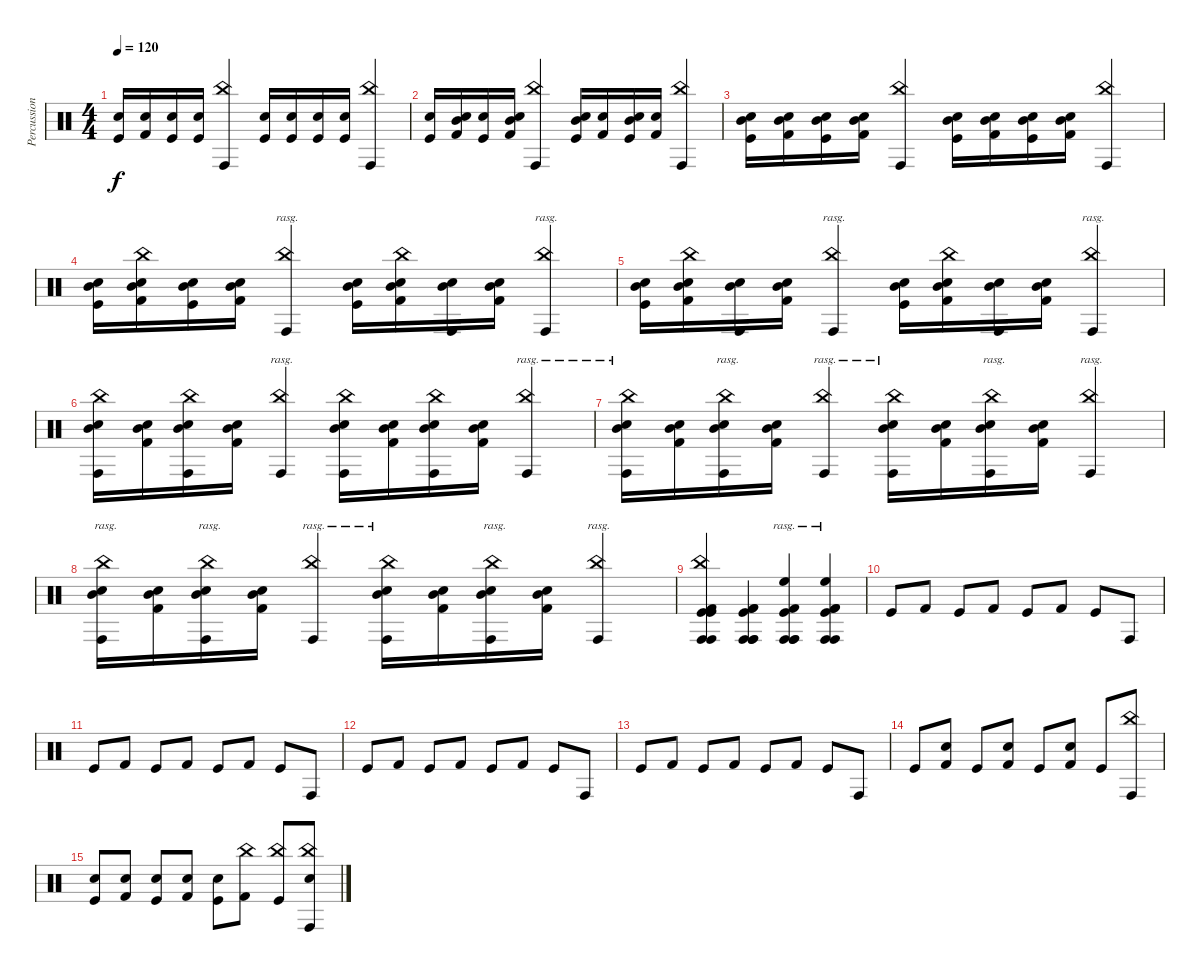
\track ("Percussion" "Percussion") {instrument percussion}
\staff {score}
\articulation defaults
\ts (4 4)
\tempo 120
\clef neutral
\ks c
("Electric Snare (hit)" "Kick (hit)").16{dy f} ("Electric Snare (hit)" "Kick (hit) 2").16 ("Electric Snare (hit)" "Kick (hit)").16 ("Electric Snare (hit)" "Kick (hit)").16 ("China (hit)" "Conga high (hit)").4 ("Electric Snare (hit)" "Kick (hit)").16 ("Electric Snare (hit)" "Kick (hit)").16 ("Electric Snare (hit)" "Kick (hit)").16 ("Electric Snare (hit)" "Kick (hit)").16 ("China (hit)" "Conga high (hit)").4 |
("Electric Snare (hit)" "Kick (hit)").16 ("Electric Snare (hit)" "Mid Tom (hit)" "Kick (hit) 2").16 ("Electric Snare (hit)" "Kick (hit)").16 ("Electric Snare (hit)" "Mid Tom (hit)" "Kick (hit) 2").16 ("China (hit)" "Conga high (hit)").4 ("Electric Snare (hit)" "Mid Tom (hit)" "Kick (hit)").16 ("Electric Snare (hit)" "Kick (hit) 2").16 ("Electric Snare (hit)" "Mid Tom (hit)" "Kick (hit)").16 ("Electric Snare (hit)" "Kick (hit) 2").16 ("China (hit)" "Conga high (hit)").4 |
("Electric Snare (hit)" "Mid Tom (hit)" "Kick (hit)").16 ("Electric Snare (hit)" "Mid Tom (hit)" "Kick (hit) 2").16 ("Electric Snare (hit)" "Mid Tom (hit)" "Kick (hit)").16 ("Electric Snare (hit)" "Mid Tom (hit)" "Kick (hit) 2").16 ("China (hit)" "Conga high (hit)").4 ("Electric Snare (hit)" "Mid Tom (hit)" "Kick (hit)").16 ("Electric Snare (hit)" "Mid Tom (hit)" "Kick (hit) 2").16 ("Electric Snare (hit)" "Mid Tom (hit)" "Kick (hit)").16 ("Electric Snare (hit)" "Mid Tom (hit)" "Kick (hit) 2").16 ("China (hit)" "Conga high (hit)").4 |
("Electric Snare (hit)" "Mid Tom (hit)" "Kick (hit)").16 ("China (hit)" "Electric Snare (hit)" "Mid Tom (hit)" "Kick (hit) 2").16 ("Electric Snare (hit)" "Mid Tom (hit)" "Kick (hit)").16 ("Electric Snare (hit)" "Mid Tom (hit)" "Kick (hit) 2").16 ("China (hit)" "Conga high (hit)").4{bd 480 rasg ii} ("Electric Snare (hit)" "Mid Tom (hit)" "Kick (hit)").16 ("China (hit)" "Electric Snare (hit)" "Mid Tom (hit)" "Kick (hit) 2").16 ("Electric Snare (hit)" "Mid Tom (hit)" "Conga high (hit)").16 ("Electric Snare (hit)" "Mid Tom (hit)" "Kick (hit) 2").16 ("China (hit)" "Conga high (hit)").4{bd 480 rasg ii} |
("Electric Snare (hit)" "Mid Tom (hit)" "Kick (hit)").16 ("China (hit)" "Electric Snare (hit)" "Mid Tom (hit)" "Kick (hit) 2").16 ("Electric Snare (hit)" "Mid Tom (hit)" "Conga high (hit)").16 ("Electric Snare (hit)" "Mid Tom (hit)" "Kick (hit) 2").16 ("China (hit)" "Conga high (hit)").4{bd 480 rasg ii} ("Electric Snare (hit)" "Mid Tom (hit)" "Kick (hit)").16 ("China (hit)" "Electric Snare (hit)" "Mid Tom (hit)" "Kick (hit) 2").16 ("Electric Snare (hit)" "Mid Tom (hit)" "Conga high (hit)").16 ("Electric Snare (hit)" "Mid Tom (hit)" "Kick (hit) 2").16 ("China (hit)" "Conga high (hit)").4{bd 480 rasg ii} |
("China (hit)" "Electric Snare (hit)" "Mid Tom (hit)" "Conga high (hit)").16 ("Electric Snare (hit)" "Mid Tom (hit)" "Kick (hit) 2").16 ("China (hit)" "Electric Snare (hit)" "Mid Tom (hit)" "Conga high (hit)").16 ("Electric Snare (hit)" "Mid Tom (hit)" "Kick (hit) 2").16 ("China (hit)" "Conga high (hit)").4{bd 480 rasg ii} ("China (hit)" "Electric Snare (hit)" "Mid Tom (hit)" "Conga high (hit)").16 ("Electric Snare (hit)" "Mid Tom (hit)" "Kick (hit) 2").16 ("China (hit)" "Electric Snare (hit)" "Mid Tom (hit)" "Conga high (hit)").16 ("Electric Snare (hit)" "Mid Tom (hit)" "Kick (hit) 2").16 ("China (hit)" "Conga high (hit)").4{bd 480 rasg ii} |
("China (hit)" "Electric Snare (hit)" "Mid Tom (hit)" "Conga high (hit)").16{bd 480 rasg ii} ("Electric Snare (hit)" "Mid Tom (hit)" "Kick (hit) 2").16 ("China (hit)" "Electric Snare (hit)" "Mid Tom (hit)" "Conga high (hit)").16{bd 480 rasg ii} ("Electric Snare (hit)" "Mid Tom (hit)" "Kick (hit) 2").16 ("China (hit)" "Conga high (hit)").4{bd 480 rasg ii} ("China (hit)" "Electric Snare (hit)" "Mid Tom (hit)" "Conga high (hit)").16{bd 480 rasg ii} ("Electric Snare (hit)" "Mid Tom (hit)" "Kick (hit) 2").16 ("China (hit)" "Electric Snare (hit)" "Mid Tom (hit)" "Conga high (hit)").16{bd 480 rasg ii} ("Electric Snare (hit)" "Mid Tom (hit)" "Kick (hit) 2").16 ("China (hit)" "Conga high (hit)").4{bd 480 rasg ii} |
("China (hit)" "Electric Snare (hit)" "Mid Tom (hit)" "Conga high (hit)").16{bd 480 rasg ii} ("Electric Snare (hit)" "Mid Tom (hit)" "Kick (hit) 2").16 ("China (hit)" "Electric Snare (hit)" "Mid Tom (hit)" "Conga high (hit)").16{bd 480 rasg ii} ("Electric Snare (hit)" "Mid Tom (hit)" "Kick (hit) 2").16 ("China (hit)" "Conga high (hit)").4{bd 480 rasg ii} ("China (hit)" "Electric Snare (hit)" "Mid Tom (hit)" "Conga high (hit)").16{bd 480 rasg ii} ("Electric Snare (hit)" "Mid Tom (hit)" "Kick (hit) 2").16 ("China (hit)" "Electric Snare (hit)" "Mid Tom (hit)" "Conga high (hit)").16{bd 480 rasg ii} ("Electric Snare (hit)" "Mid Tom (hit)" "Kick (hit) 2").16 ("China (hit)" "Conga high (hit)").4{bd 480 rasg ii} |
("China (hit)" "Conga high (hit)" "Kick (hit)" "Kick (hit) 2" "Kick (hit)" "Conga high (hit)").4{bd 480} ("Conga high (hit)" "Conga high (hit)" "Kick (hit) 2" "Kick (hit)" "Kick (hit) 2" "Conga high (hit)").4{bd 480} ("Conga high (hit)" "Conga high (hit)" "Kick (hit)" "High Floor Tom (hit)" "Kick (hit) 2" "Conga high (hit)").4{bd 480 rasg ii} ("Kick (hit) 2" "Conga high (hit)" "Kick (hit)" "Kick (hit) 2" "High Floor Tom (hit)" "Conga high (hit)").4{bd 480 rasg ii} |
"Kick (hit)".8 "Kick (hit) 2".8 "Kick (hit)".8 "Kick (hit) 2".8 "Kick (hit)".8 "Kick (hit) 2".8 "Kick (hit)".8 "Conga high (hit)".8 |
"Kick (hit)".8 "Kick (hit) 2".8 "Kick (hit)".8 "Kick (hit) 2".8 "Kick (hit)".8 "Kick (hit) 2".8 "Kick (hit)".8 "Conga high (hit)".8 |
"Kick (hit)".8 "Kick (hit) 2".8 "Kick (hit)".8 "Kick (hit) 2".8 "Kick (hit)".8 "Kick (hit) 2".8 "Kick (hit)".8 "Conga high (hit)".8 |
"Kick (hit)".8 "Kick (hit) 2".8 "Kick (hit)".8 "Kick (hit) 2".8 "Kick (hit)".8 "Kick (hit) 2".8 "Kick (hit)".8 "Conga high (hit)".8 |
"Kick (hit)".8 ("Electric Snare (hit)" "Kick (hit) 2").8 "Kick (hit)".8 ("Electric Snare (hit)" "Kick (hit) 2").8 "Kick (hit)".8 ("Electric Snare (hit)" "Kick (hit) 2").8 "Kick (hit)".8 ("China (hit)" "Conga high (hit)").8 |
("Electric Snare (hit)" "Kick (hit)").8 ("Electric Snare (hit)" "Kick (hit) 2").8 ("Electric Snare (hit)" "Kick (hit)").8 ("Electric Snare (hit)" "Kick (hit) 2").8 ("Electric Snare (hit)" "Kick (hit)").8 ("China (hit)" "Kick (hit) 2").8 ("China (hit)" "Kick (hit)").8 ("China (hit)" "Electric Snare (hit)" "Conga high (hit)").8
